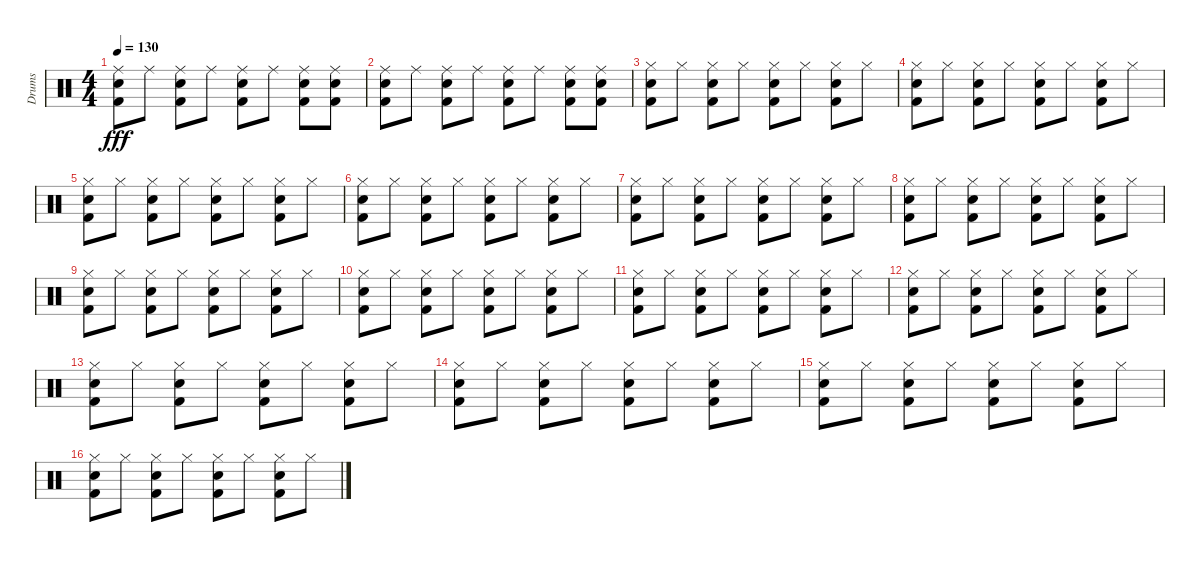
\track ("Drums" "Drums") {instrument percussion}
\staff {score}
\articulation defaults
\ts (4 4)
\tempo 130
\clef neutral
\ks c
("Kick (hit) 2" "Snare (hit) 2" "Ride (middle)").8{dy fff} "Ride (middle)".8 ("Kick (hit) 2" "Snare (hit) 2" "Ride (middle)").8 "Ride (middle)".8 ("Kick (hit) 2" "Snare (hit) 2" "Ride (middle)").8 "Ride (middle)".8 ("Kick (hit) 2" "Snare (hit) 2" "Ride (middle)").8 ("Kick (hit) 2" "Snare (hit) 2" "Ride (middle)").8 |
("Kick (hit) 2" "Snare (hit) 2" "Ride (middle)").8 "Ride (middle)".8 ("Kick (hit) 2" "Snare (hit) 2" "Ride (middle)").8 "Ride (middle)".8 ("Kick (hit) 2" "Snare (hit) 2" "Ride (middle)").8 "Ride (middle)".8 ("Kick (hit) 2" "Snare (hit) 2" "Ride (middle)").8 ("Kick (hit) 2" "Snare (hit) 2" "Ride (middle)").8 |
("Kick (hit) 2" "Snare (hit) 2" "Hi-Hat (closed)").8 "Hi-Hat (closed)".8 ("Kick (hit) 2" "Snare (hit) 2" "Hi-Hat (closed)").8 "Hi-Hat (closed)".8 ("Kick (hit) 2" "Snare (hit) 2" "Hi-Hat (closed)").8 "Hi-Hat (closed)".8 ("Kick (hit) 2" "Snare (hit) 2" "Hi-Hat (closed)").8 "Hi-Hat (closed)".8 |
("Kick (hit) 2" "Snare (hit) 2" "Hi-Hat (closed)").8 "Hi-Hat (closed)".8 ("Kick (hit) 2" "Snare (hit) 2" "Hi-Hat (closed)").8 "Hi-Hat (closed)".8 ("Kick (hit) 2" "Snare (hit) 2" "Hi-Hat (closed)").8 "Hi-Hat (closed)".8 ("Kick (hit) 2" "Snare (hit) 2" "Hi-Hat (closed)").8 "Hi-Hat (closed)".8 |
("Kick (hit) 2" "Snare (hit) 2" "Hi-Hat (closed)").8 "Hi-Hat (closed)".8 ("Kick (hit) 2" "Snare (hit) 2" "Hi-Hat (closed)").8 "Hi-Hat (closed)".8 ("Kick (hit) 2" "Snare (hit) 2" "Hi-Hat (closed)").8 "Hi-Hat (closed)".8 ("Kick (hit) 2" "Snare (hit) 2" "Hi-Hat (closed)").8 "Hi-Hat (closed)".8 |
("Kick (hit) 2" "Snare (hit) 2" "Hi-Hat (closed)").8 "Hi-Hat (closed)".8 ("Kick (hit) 2" "Snare (hit) 2" "Hi-Hat (closed)").8 "Hi-Hat (closed)".8 ("Kick (hit) 2" "Snare (hit) 2" "Hi-Hat (closed)").8 "Hi-Hat (closed)".8 ("Kick (hit) 2" "Snare (hit) 2" "Hi-Hat (closed)").8 "Hi-Hat (closed)".8 |
("Kick (hit) 2" "Snare (hit) 2" "Hi-Hat (closed)").8 "Hi-Hat (closed)".8 ("Kick (hit) 2" "Snare (hit) 2" "Hi-Hat (closed)").8 "Hi-Hat (closed)".8 ("Kick (hit) 2" "Snare (hit) 2" "Hi-Hat (closed)").8 "Hi-Hat (closed)".8 ("Kick (hit) 2" "Snare (hit) 2" "Hi-Hat (closed)").8 "Hi-Hat (closed)".8 |
("Kick (hit) 2" "Snare (hit) 2" "Hi-Hat (closed)").8 "Hi-Hat (closed)".8 ("Kick (hit) 2" "Snare (hit) 2" "Hi-Hat (closed)").8 "Hi-Hat (closed)".8 ("Kick (hit) 2" "Snare (hit) 2" "Hi-Hat (closed)").8 "Hi-Hat (closed)".8 ("Kick (hit) 2" "Snare (hit) 2" "Hi-Hat (closed)").8 "Hi-Hat (closed)".8 |
("Kick (hit) 2" "Snare (hit) 2" "Hi-Hat (closed)").8 "Hi-Hat (closed)".8 ("Kick (hit) 2" "Snare (hit) 2" "Hi-Hat (closed)").8 "Hi-Hat (closed)".8 ("Kick (hit) 2" "Snare (hit) 2" "Hi-Hat (closed)").8 "Hi-Hat (closed)".8 ("Kick (hit) 2" "Snare (hit) 2" "Hi-Hat (closed)").8 "Hi-Hat (closed)".8 |
("Kick (hit) 2" "Snare (hit) 2" "Hi-Hat (closed)").8 "Hi-Hat (closed)".8 ("Kick (hit) 2" "Snare (hit) 2" "Hi-Hat (closed)").8 "Hi-Hat (closed)".8 ("Kick (hit) 2" "Snare (hit) 2" "Hi-Hat (closed)").8 "Hi-Hat (closed)".8 ("Kick (hit) 2" "Snare (hit) 2" "Hi-Hat (closed)").8 "Hi-Hat (closed)".8 |
("Kick (hit) 2" "Snare (hit) 2" "Hi-Hat (closed)").8 "Hi-Hat (closed)".8 ("Kick (hit) 2" "Snare (hit) 2" "Hi-Hat (closed)").8 "Hi-Hat (closed)".8 ("Kick (hit) 2" "Snare (hit) 2" "Hi-Hat (closed)").8 "Hi-Hat (closed)".8 ("Kick (hit) 2" "Snare (hit) 2" "Hi-Hat (closed)").8 "Hi-Hat (closed)".8 |
("Kick (hit) 2" "Snare (hit) 2" "Hi-Hat (closed)").8 "Hi-Hat (closed)".8 ("Kick (hit) 2" "Snare (hit) 2" "Hi-Hat (closed)").8 "Hi-Hat (closed)".8 ("Kick (hit) 2" "Snare (hit) 2" "Hi-Hat (closed)").8 "Hi-Hat (closed)".8 ("Kick (hit) 2" "Snare (hit) 2" "Hi-Hat (closed)").8 "Hi-Hat (closed)".8 |
("Kick (hit) 2" "Snare (hit) 2" "Hi-Hat (closed)").8 "Hi-Hat (closed)".8 ("Kick (hit) 2" "Snare (hit) 2" "Hi-Hat (closed)").8 "Hi-Hat (closed)".8 ("Kick (hit) 2" "Snare (hit) 2" "Hi-Hat (closed)").8 "Hi-Hat (closed)".8 ("Kick (hit) 2" "Snare (hit) 2" "Hi-Hat (closed)").8 "Hi-Hat (closed)".8 |
("Kick (hit) 2" "Snare (hit) 2" "Hi-Hat (closed)").8 "Hi-Hat (closed)".8 ("Kick (hit) 2" "Snare (hit) 2" "Hi-Hat (closed)").8 "Hi-Hat (closed)".8 ("Kick (hit) 2" "Snare (hit) 2" "Hi-Hat (closed)").8 "Hi-Hat (closed)".8 ("Kick (hit) 2" "Snare (hit) 2" "Hi-Hat (closed)").8 "Hi-Hat (closed)".8 |
("Kick (hit) 2" "Snare (hit) 2" "Hi-Hat (closed)").8 "Hi-Hat (closed)".8 ("Kick (hit) 2" "Snare (hit) 2" "Hi-Hat (closed)").8 "Hi-Hat (closed)".8 ("Kick (hit) 2" "Snare (hit) 2" "Hi-Hat (closed)").8 "Hi-Hat (closed)".8 ("Kick (hit) 2" "Snare (hit) 2" "Hi-Hat (closed)").8 "Hi-Hat (closed)".8 |
("Kick (hit) 2" "Snare (hit) 2" "Hi-Hat (closed)").8 "Hi-Hat (closed)".8 ("Kick (hit) 2" "Snare (hit) 2" "Hi-Hat (closed)").8 "Hi-Hat (closed)".8 ("Kick (hit) 2" "Snare (hit) 2" "Hi-Hat (closed)").8 "Hi-Hat (closed)".8 ("Kick (hit) 2" "Snare (hit) 2" "Hi-Hat (closed)").8 "Hi-Hat (closed)".8
